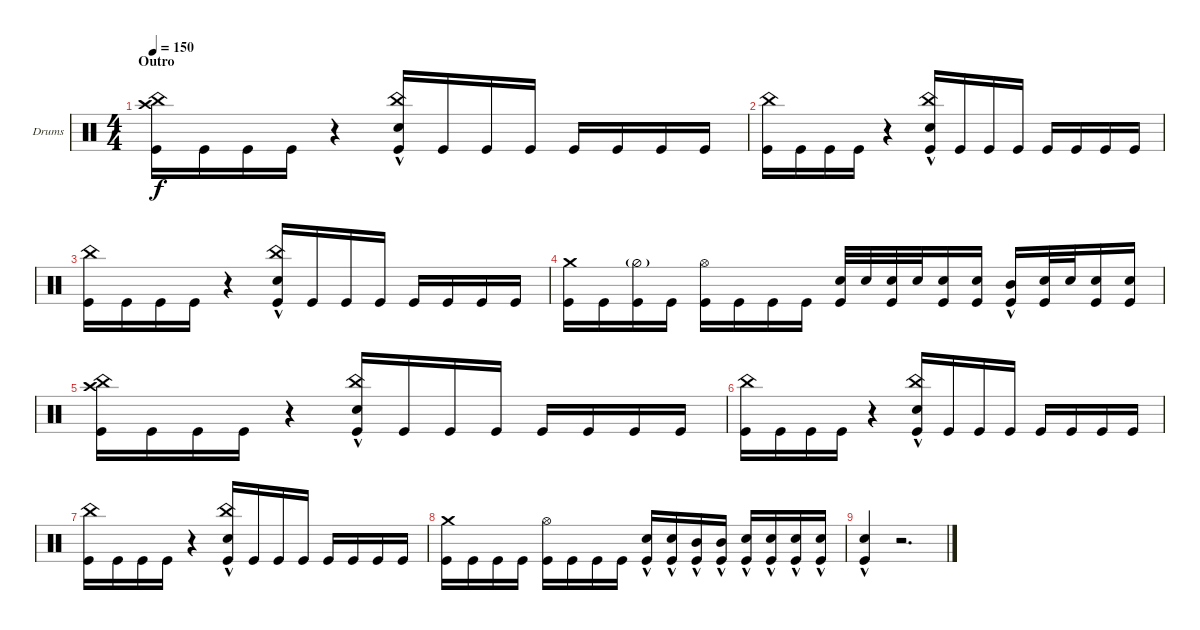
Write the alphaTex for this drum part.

\bracketExtendMode groupsimilarinstruments
\firstSystemTrackNameOrientation horizontal
\otherSystemsTrackNameOrientation horizontal
\track ("Drumkit" "Drums") {instrument percussion}
\staff {score}
\articulation defaults
\ts (4 4)
\section ("" "Outro")
\tempo 150
\clef neutral
\ks aminor
("Kick (hit)" "Crash high (hit)" "China (hit)").16{dy f} "Kick (hit)".16 "Kick (hit)".16 "Kick (hit)".16 r.4 ("Kick (hit)" "Snare (hit) 2"{hac} "China (hit)").16 "Kick (hit)".16 "Kick (hit)".16 "Kick (hit)".16 "Kick (hit)".16 "Kick (hit)".16 "Kick (hit)".16 "Kick (hit)".16 |
("Kick (hit)" "China (hit)").16 "Kick (hit)".16 "Kick (hit)".16 "Kick (hit)".16 r.4 ("Kick (hit)" "Snare (hit) 2"{hac} "China (hit)").16 "Kick (hit)".16 "Kick (hit)".16 "Kick (hit)".16 "Kick (hit)".16 "Kick (hit)".16 "Kick (hit)".16 "Kick (hit)".16 |
("Kick (hit)" "China (hit)").16 "Kick (hit)".16 "Kick (hit)".16 "Kick (hit)".16 r.4 ("Kick (hit)" "Snare (hit) 2"{hac} "China (hit)").16 "Kick (hit)".16 "Kick (hit)".16 "Kick (hit)".16 "Kick (hit)".16 "Kick (hit)".16 "Kick (hit)".16 "Kick (hit)".16 |
("Kick (hit)" "Crash medium (hit)").16 "Kick (hit)".16 ("Kick (hit)" "Hi-Hat (half)"{g}).16 "Kick (hit)".16 ("Kick (hit)" "Hi-Hat (open)").16 "Kick (hit)".16 "Kick (hit)".16 "Kick (hit)".16 ("Kick (hit)" "Snare (hit) 2").32 "Snare (hit) 2".32 ("Kick (hit)" "Snare (hit) 2").32 "Snare (hit) 2".32 ("Kick (hit)" "Snare (hit) 2").16 ("Kick (hit)" "Snare (hit) 2").16 ("Kick (hit)" "Mid Tom (hit)"{hac}).16 ("Kick (hit)" "Snare (hit) 2").32 "Snare (hit) 2".32 ("Kick (hit)" "Snare (hit) 2").16 ("Kick (hit)" "Snare (hit) 2").16 |
("Kick (hit)" "Crash high (hit)" "China (hit)").16 "Kick (hit)".16 "Kick (hit)".16 "Kick (hit)".16 r.4 ("Kick (hit)" "Snare (hit) 2"{hac} "China (hit)").16 "Kick (hit)".16 "Kick (hit)".16 "Kick (hit)".16 "Kick (hit)".16 "Kick (hit)".16 "Kick (hit)".16 "Kick (hit)".16 |
("Kick (hit)" "China (hit)").16 "Kick (hit)".16 "Kick (hit)".16 "Kick (hit)".16 r.4 ("Kick (hit)" "Snare (hit) 2"{hac} "China (hit)").16 "Kick (hit)".16 "Kick (hit)".16 "Kick (hit)".16 "Kick (hit)".16 "Kick (hit)".16 "Kick (hit)".16 "Kick (hit)".16 |
("Kick (hit)" "China (hit)").16 "Kick (hit)".16 "Kick (hit)".16 "Kick (hit)".16 r.4 ("Kick (hit)" "Snare (hit) 2"{hac} "China (hit)").16 "Kick (hit)".16 "Kick (hit)".16 "Kick (hit)".16 "Kick (hit)".16 "Kick (hit)".16 "Kick (hit)".16 "Kick (hit)".16 |
("Kick (hit)" "Crash medium (hit)").16 "Kick (hit)".16 "Kick (hit)".16 "Kick (hit)".16 ("Kick (hit)" "Hi-Hat (open)").16 "Kick (hit)".16 "Kick (hit)".16 "Kick (hit)".16 ("Kick (hit)" "Snare (hit) 2"{hac}).16 ("Kick (hit)" "Snare (hit) 2"{hac}).16 ("Kick (hit)" "Mid Tom (hit)"{hac}).16 ("Kick (hit)" "Mid Tom (hit)"{hac}).16 ("Kick (hit)" "Snare (hit) 2"{hac}).16 ("Kick (hit)" "Snare (hit) 2"{hac}).16 ("Kick (hit)" "Snare (hit) 2"{hac}).16 ("Kick (hit)" "Snare (hit) 2"{hac}).16 |
("Kick (hit)" "Snare (hit) 2"{hac}).4 r.2{d}
